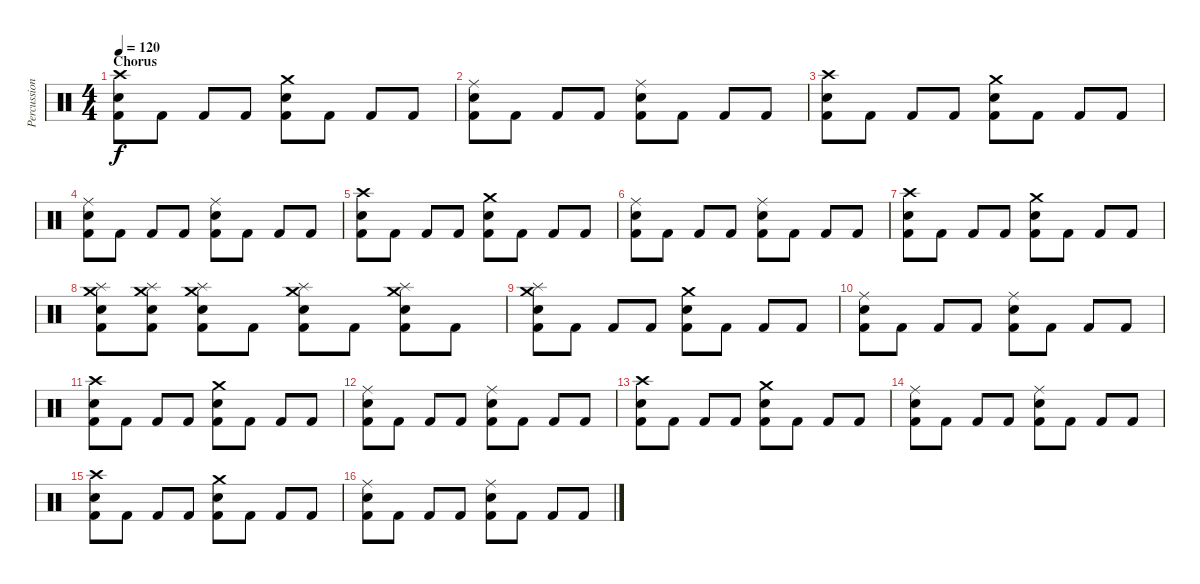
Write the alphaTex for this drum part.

\track ("Percussioni" "Percussion") {instrument percussion}
\staff {score}
\articulation defaults
\ts (4 4)
\section ("" "Chorus")
\tempo 120
\clef neutral
\ks c
("Crash high (hit)" "Electric Snare (hit)" "Kick (hit) 2").8{dy f} "Kick (hit) 2".8 "Kick (hit) 2".8 "Kick (hit) 2".8 ("Crash medium (hit)" "Electric Snare (hit)" "Kick (hit) 2").8 "Kick (hit) 2".8 "Kick (hit) 2".8 "Kick (hit) 2".8 |
("Ride (middle)" "Electric Snare (hit)" "Kick (hit) 2").8 "Kick (hit) 2".8 "Kick (hit) 2".8 "Kick (hit) 2".8 ("Ride (middle)" "Electric Snare (hit)" "Kick (hit) 2").8 "Kick (hit) 2".8 "Kick (hit) 2".8 "Kick (hit) 2".8 |
("Crash high (hit)" "Electric Snare (hit)" "Kick (hit) 2").8 "Kick (hit) 2".8 "Kick (hit) 2".8 "Kick (hit) 2".8 ("Crash medium (hit)" "Electric Snare (hit)" "Kick (hit) 2").8 "Kick (hit) 2".8 "Kick (hit) 2".8 "Kick (hit) 2".8 |
("Ride (middle)" "Electric Snare (hit)" "Kick (hit) 2").8 "Kick (hit) 2".8 "Kick (hit) 2".8 "Kick (hit) 2".8 ("Ride (middle)" "Electric Snare (hit)" "Kick (hit) 2").8 "Kick (hit) 2".8 "Kick (hit) 2".8 "Kick (hit) 2".8 |
("Crash high (hit)" "Electric Snare (hit)" "Kick (hit) 2").8 "Kick (hit) 2".8 "Kick (hit) 2".8 "Kick (hit) 2".8 ("Crash medium (hit)" "Electric Snare (hit)" "Kick (hit) 2").8 "Kick (hit) 2".8 "Kick (hit) 2".8 "Kick (hit) 2".8 |
("Ride (middle)" "Electric Snare (hit)" "Kick (hit) 2").8 "Kick (hit) 2".8 "Kick (hit) 2".8 "Kick (hit) 2".8 ("Ride (middle)" "Electric Snare (hit)" "Kick (hit) 2").8 "Kick (hit) 2".8 "Kick (hit) 2".8 "Kick (hit) 2".8 |
("Crash high (hit)" "Electric Snare (hit)" "Kick (hit) 2").8 "Kick (hit) 2".8 "Kick (hit) 2".8 "Kick (hit) 2".8 ("Crash medium (hit)" "Electric Snare (hit)" "Kick (hit) 2").8 "Kick (hit) 2".8 "Kick (hit) 2".8 "Kick (hit) 2".8 |
("Crash medium (hit)" "Splash (hit)" "Electric Snare (hit)" "Kick (hit) 2").8 ("Crash medium (hit)" "Splash (hit)" "Electric Snare (hit)" "Kick (hit) 2").8 ("Crash medium (hit)" "Splash (hit)" "Electric Snare (hit)" "Kick (hit) 2").8 "Kick (hit) 2".8 ("Crash medium (hit)" "Splash (hit)" "Electric Snare (hit)" "Kick (hit) 2").8 "Kick (hit) 2".8 ("Crash medium (hit)" "Splash (hit)" "Electric Snare (hit)" "Kick (hit) 2").8 "Kick (hit) 2".8 |
("Crash medium (hit)" "Splash (hit)" "Electric Snare (hit)" "Kick (hit) 2").8 "Kick (hit) 2".8 "Kick (hit) 2".8 "Kick (hit) 2".8 ("Crash medium (hit)" "Electric Snare (hit)" "Kick (hit) 2").8 "Kick (hit) 2".8 "Kick (hit) 2".8 "Kick (hit) 2".8 |
("Ride (middle)" "Electric Snare (hit)" "Kick (hit) 2").8 "Kick (hit) 2".8 "Kick (hit) 2".8 "Kick (hit) 2".8 ("Ride (middle)" "Electric Snare (hit)" "Kick (hit) 2").8 "Kick (hit) 2".8 "Kick (hit) 2".8 "Kick (hit) 2".8 |
("Crash high (hit)" "Electric Snare (hit)" "Kick (hit) 2").8 "Kick (hit) 2".8 "Kick (hit) 2".8 "Kick (hit) 2".8 ("Crash medium (hit)" "Electric Snare (hit)" "Kick (hit) 2").8 "Kick (hit) 2".8 "Kick (hit) 2".8 "Kick (hit) 2".8 |
("Ride (middle)" "Electric Snare (hit)" "Kick (hit) 2").8 "Kick (hit) 2".8 "Kick (hit) 2".8 "Kick (hit) 2".8 ("Ride (middle)" "Electric Snare (hit)" "Kick (hit) 2").8 "Kick (hit) 2".8 "Kick (hit) 2".8 "Kick (hit) 2".8 |
("Crash high (hit)" "Electric Snare (hit)" "Kick (hit) 2").8 "Kick (hit) 2".8 "Kick (hit) 2".8 "Kick (hit) 2".8 ("Crash medium (hit)" "Electric Snare (hit)" "Kick (hit) 2").8 "Kick (hit) 2".8 "Kick (hit) 2".8 "Kick (hit) 2".8 |
("Ride (middle)" "Electric Snare (hit)" "Kick (hit) 2").8 "Kick (hit) 2".8 "Kick (hit) 2".8 "Kick (hit) 2".8 ("Ride (middle)" "Electric Snare (hit)" "Kick (hit) 2").8 "Kick (hit) 2".8 "Kick (hit) 2".8 "Kick (hit) 2".8 |
("Crash high (hit)" "Electric Snare (hit)" "Kick (hit) 2").8 "Kick (hit) 2".8 "Kick (hit) 2".8 "Kick (hit) 2".8 ("Crash medium (hit)" "Electric Snare (hit)" "Kick (hit) 2").8 "Kick (hit) 2".8 "Kick (hit) 2".8 "Kick (hit) 2".8 |
("Ride (middle)" "Electric Snare (hit)" "Kick (hit) 2").8 "Kick (hit) 2".8 "Kick (hit) 2".8 "Kick (hit) 2".8 ("Ride (middle)" "Electric Snare (hit)" "Kick (hit) 2").8 "Kick (hit) 2".8 "Kick (hit) 2".8 "Kick (hit) 2".8
